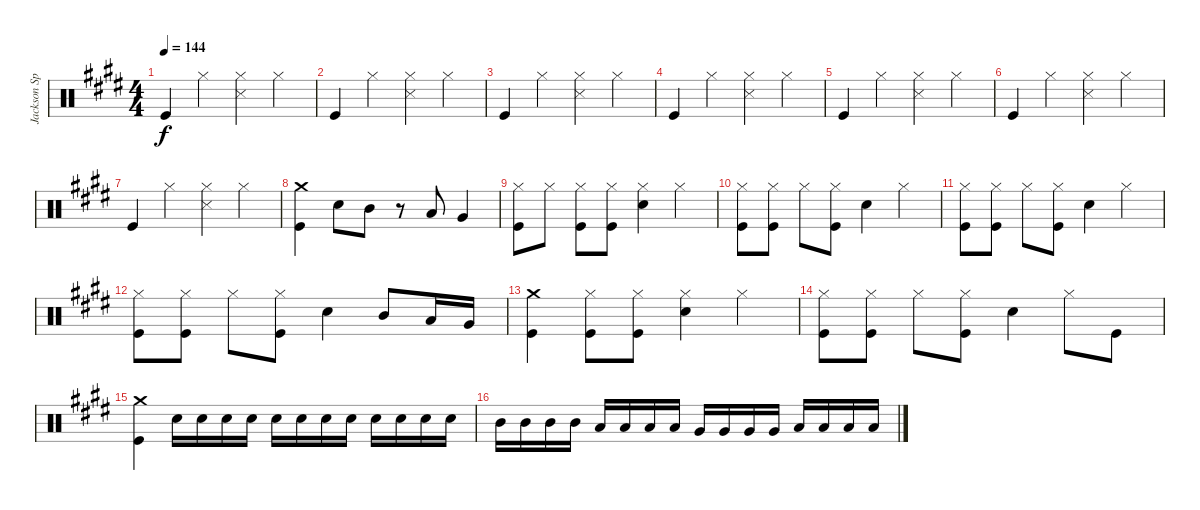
\track ("Jackson Spiers Drums" "Jackson Sp") {instrument percussion}
\staff {score}
\articulation defaults
\ts (4 4)
\tempo 144
\clef neutral
\ks c#minor "Kick (hit)".4{dy f} "Hi-Hat (closed)".4
("Hi-Hat (closed)" "Snare (side stick) 3").4 "Hi-Hat (closed)".4 |
"Kick (hit)".4 "Hi-Hat (closed)".4 ("Hi-Hat (closed)" "Snare (side stick) 3").4 "Hi-Hat (closed)".4 |
"Kick (hit)".4 "Hi-Hat (closed)".4 ("Hi-Hat (closed)" "Snare (side stick) 3").4 "Hi-Hat (closed)".4 |
"Kick (hit)".4 "Hi-Hat (closed)".4 ("Hi-Hat (closed)" "Snare (side stick) 3").4 "Hi-Hat (closed)".4 |
"Kick (hit)".4 "Hi-Hat (closed)".4 ("Hi-Hat (closed)" "Snare (side stick) 3").4 "Hi-Hat (closed)".4 |
"Kick (hit)".4 "Hi-Hat (closed)".4 ("Hi-Hat (closed)" "Snare (side stick) 3").4 "Hi-Hat (closed)".4 |
"Kick (hit)".4 "Hi-Hat (closed)".4 ("Hi-Hat (closed)" "Snare (side stick) 3").4 "Hi-Hat (closed)".4 |
("Crash medium (hit)" "Kick (hit)").4 "Snare (hit) 2".8 "Mid Tom (hit)".8 r.8 "Low Tom (hit)".8 "Very Low Tom (hit)".4 |
("Hi-Hat (closed)" "Kick (hit)").8 "Hi-Hat (closed)".8 ("Hi-Hat (closed)" "Kick (hit)").8 ("Hi-Hat (closed)" "Kick (hit)").8 ("Hi-Hat (closed)" "Snare (hit) 2").4 "Hi-Hat (closed)".4 |
("Hi-Hat (closed)" "Kick (hit)").8 ("Hi-Hat (closed)" "Kick (hit)").8 "Hi-Hat (closed)".8 ("Hi-Hat (closed)" "Kick (hit)").8 "Snare (hit) 2".4 "Hi-Hat (closed)".4 |
("Hi-Hat (closed)" "Kick (hit)").8 ("Hi-Hat (closed)" "Kick (hit)").8 "Hi-Hat (closed)".8 ("Hi-Hat (closed)" "Kick (hit)").8 "Snare (hit) 2".4 "Hi-Hat (closed)".4 |
("Hi-Hat (closed)" "Kick (hit)").8 ("Hi-Hat (closed)" "Kick (hit)").8 "Hi-Hat (closed)".8 ("Hi-Hat (closed)" "Kick (hit)").8 "Snare (hit) 2".4 "Mid Tom (hit)".8 "Low Tom (hit)".16 "Very Low Tom (hit)".16 |
("Crash medium (hit)" "Kick (hit)").4 ("Hi-Hat (closed)" "Kick (hit)").8 ("Hi-Hat (closed)" "Kick (hit)").8 ("Hi-Hat (closed)" "Snare (hit) 2").4 "Hi-Hat (closed)".4 |
("Hi-Hat (closed)" "Kick (hit)").8 ("Hi-Hat (closed)" "Kick (hit)").8 "Hi-Hat (closed)".8 ("Hi-Hat (closed)" "Kick (hit)").8 "Snare (hit) 2".4 "Hi-Hat (closed)".8 "Kick (hit)".8 |
("Crash medium (hit)" "Kick (hit)").4 "Snare (hit) 2".16{volume 0} "Snare (hit) 2".16{volume 12} "Snare (hit) 2".16 "Snare (hit) 2".16 "Snare (hit) 2".16 "Snare (hit) 2".16 "Snare (hit) 2".16 "Snare (hit) 2".16 "Snare (hit) 2".16 "Snare (hit) 2".16 "Snare (hit) 2".16 "Snare (hit) 2".16 |
"Mid Tom (hit)".16 "Mid Tom (hit)".16 "Mid Tom (hit)".16 "Mid Tom (hit)".16 "Low Tom (hit)".16 "Low Tom (hit)".16 "Low Tom (hit)".16 "Low Tom (hit)".16 "Very Low Tom (hit)".16 "Very Low Tom (hit)".16 "Very Low Tom (hit)".16 "Very Low Tom (hit)".16 "Low Floor Tom (hit)".16 "Low Floor Tom (hit)".16 "Low Floor Tom (hit)".16 "Low Floor Tom (hit)".16
